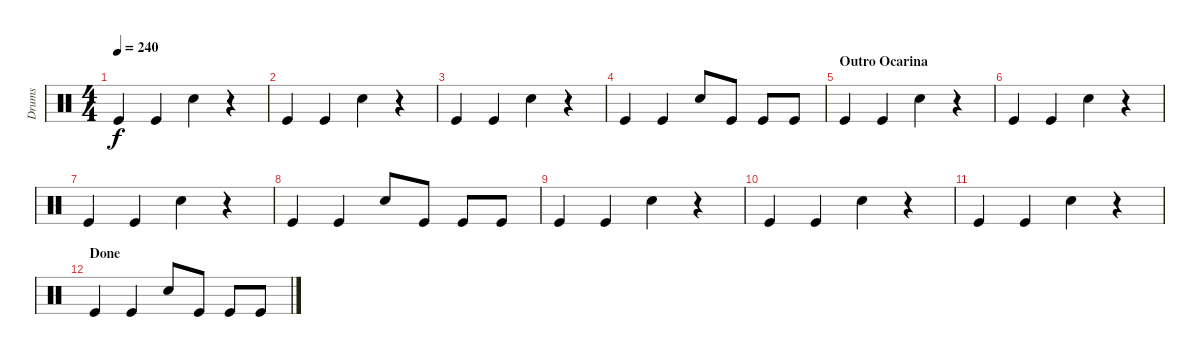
\track ("Drums" "Drums") {instrument percussion}
\staff {score}
\articulation defaults
\ts (4 4)
\tempo 240
\clef neutral
\ks c "Kick (hit)".4{dy f} "Kick (hit)".4 "Snare (hit) 2".4
r.4 |
"Kick (hit)".4 "Kick (hit)".4 "Snare (hit) 2".4 r.4 |
"Kick (hit)".4 "Kick (hit)".4 "Snare (hit) 2".4 r.4 |
"Kick (hit)".4 "Kick (hit)".4 "Snare (hit) 2".8 "Kick (hit)".8 "Kick (hit)".8 "Kick (hit)".8 |
\section ("" "Outro Ocarina")
"Kick (hit)".4 "Kick (hit)".4 "Snare (hit) 2".4 r.4 |
"Kick (hit)".4 "Kick (hit)".4 "Snare (hit) 2".4 r.4 |
"Kick (hit)".4 "Kick (hit)".4 "Snare (hit) 2".4 r.4 |
"Kick (hit)".4 "Kick (hit)".4 "Snare (hit) 2".8 "Kick (hit)".8 "Kick (hit)".8 "Kick (hit)".8 |
"Kick (hit)".4 "Kick (hit)".4 "Snare (hit) 2".4 r.4 |
"Kick (hit)".4 "Kick (hit)".4 "Snare (hit) 2".4 r.4 |
"Kick (hit)".4 "Kick (hit)".4 "Snare (hit) 2".4 r.4 |
\section ("" "Done")
"Kick (hit)".4 "Kick (hit)".4 "Snare (hit) 2".8 "Kick (hit)".8 "Kick (hit)".8 "Kick (hit)".8
